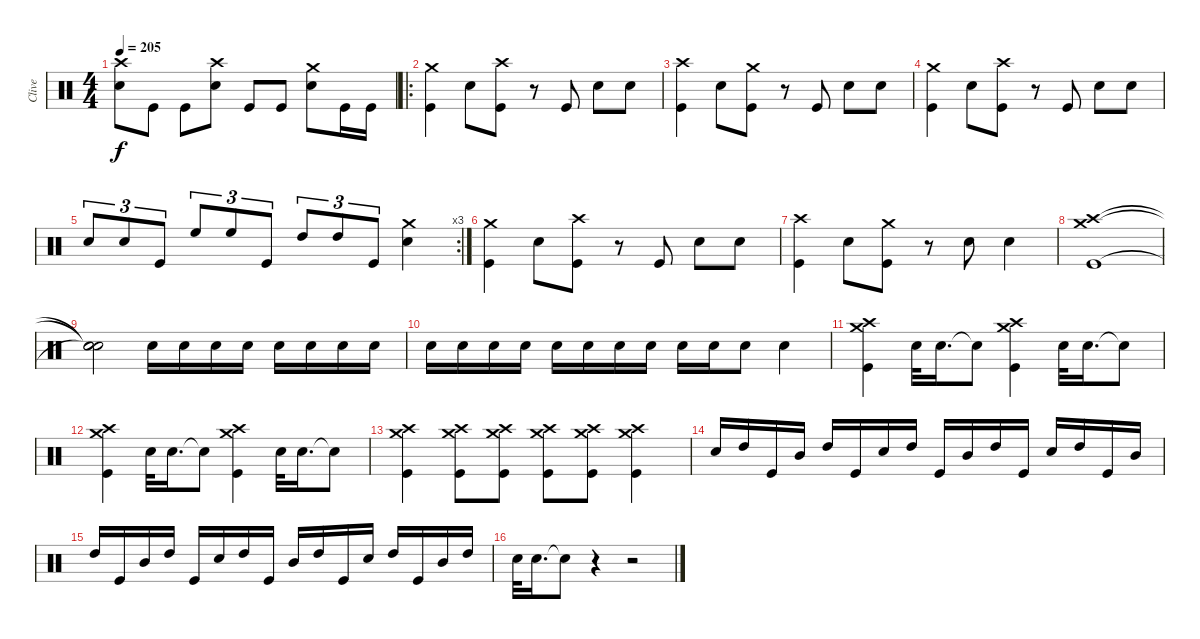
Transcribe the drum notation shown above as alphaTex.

\track ("Clive" "Clive") {instrument percussion}
\staff {score}
\articulation defaults
\ts (4 4)
\tempo 205
\clef neutral
\ks c
("Crash high (hit)" "Snare (hit) 2").8{dy f} "Kick (hit)".8 "Kick (hit)".8 ("Crash high (hit)" "Snare (hit) 2").8 "Kick (hit)".8 "Kick (hit)".8 ("Crash medium (hit)" "Snare (hit) 2").8 "Kick (hit)".16 "Kick (hit)".16 |
\ro
("Crash medium (hit)" "Kick (hit)").4 "Snare (hit) 2".8 ("Crash high (hit)" "Kick (hit)").8 r.8 "Kick (hit)".8 "Snare (hit) 2".8 "Snare (hit) 2".8 |
("Crash high (hit)" "Kick (hit)").4 "Snare (hit) 2".8 ("Crash medium (hit)" "Kick (hit)").8 r.8 "Kick (hit)".8 "Snare (hit) 2".8 "Snare (hit) 2".8 |
("Crash medium (hit)" "Kick (hit)").4 "Snare (hit) 2".8 ("Crash high (hit)" "Kick (hit)").8 r.8 "Kick (hit)".8 "Snare (hit) 2".8 "Snare (hit) 2".8 |
\rc 3 "Snare (hit) 2".8{tu (3 2)} "Snare (hit) 2".8{tu (3 2)} "Kick (hit)".8{tu (3 2)} "High Floor Tom (hit)".8{tu (3 2)} "High Floor Tom (hit)".8{tu (3 2)} "Kick (hit)".8{tu (3 2)} "High Tom (hit)".8{tu (3 2)} "High Tom (hit)".8{tu (3 2)} "Kick (hit)".8{tu (3 2)}
("Crash medium (hit)" "Snare (hit) 2").4 |
("Crash medium (hit)" "Kick (hit)").4 "Snare (hit) 2".8 ("Crash high (hit)" "Kick (hit)").8 r.8 "Kick (hit)".8 "Snare (hit) 2".8 "Snare (hit) 2".8 |
("Crash high (hit)" "Kick (hit)").4 "Snare (hit) 2".8 ("Crash medium (hit)" "Kick (hit)").8 r.8 "Snare (hit) 2".8 "Snare (hit) 2".4 |
("Crash medium (hit)" "Crash high (hit)" "Kick (hit)").1 |
("Snare (hit)"{t} "Snare (hit)"{t} "Snare (hit)"{t}).2 "Snare (hit) 2".16 "Snare (hit) 2".16 "Snare (hit) 2".16 "Snare (hit) 2".16 "Snare (hit) 2".16 "Snare (hit) 2".16 "Snare (hit) 2".16 "Snare (hit) 2".16 |
"Snare (hit) 2".16 "Snare (hit) 2".16 "Snare (hit) 2".16 "Snare (hit) 2".16 "Snare (hit) 2".16 "Snare (hit) 2".16 "Snare (hit) 2".16 "Snare (hit) 2".16 "Snare (hit) 2".16 "Snare (hit) 2".16 "Snare (hit) 2".8 "Snare (hit) 2".4 |
("Crash medium (hit)" "Crash high (hit)" "Kick (hit)").4 "Snare (hit) 2".32 "Snare (hit) 2".16{d} "Snare (hit)"{t}.8 ("Crash medium (hit)" "Crash high (hit)" "Kick (hit)").4 "Snare (hit) 2".32 "Snare (hit) 2".16{d} "Snare (hit)"{t}.8 |
("Crash medium (hit)" "Crash high (hit)" "Kick (hit)").4 "Snare (hit) 2".32 "Snare (hit) 2".16{d} "Snare (hit)"{t}.8 ("Crash medium (hit)" "Crash high (hit)" "Kick (hit)").4 "Snare (hit) 2".32 "Snare (hit) 2".16{d} "Snare (hit)"{t}.8 |
("Crash high (hit)" "Crash medium (hit)" "Kick (hit)").4 ("Crash high (hit)" "Crash medium (hit)" "Kick (hit)").8 ("Crash medium (hit)" "Crash high (hit)" "Kick (hit)").8 ("Crash medium (hit)" "Crash high (hit)" "Kick (hit)").8 ("Crash high (hit)" "Crash medium (hit)" "Kick (hit)").8 ("Crash medium (hit)" "Crash high (hit)" "Kick (hit)").4 |
"Snare (hit) 2".16 "High Tom (hit)".16 "Kick (hit)".16 "Mid Tom (hit)".16 "High Tom (hit)".16 "Kick (hit)".16 "Snare (hit) 2".16 "High Tom (hit)".16 "Kick (hit)".16 "Mid Tom (hit)".16 "High Tom (hit)".16 "Kick (hit)".16 "Snare (hit) 2".16 "High Tom (hit)".16 "Kick (hit)".16 "Mid Tom (hit)".16 |
"High Tom (hit)".16 "Kick (hit)".16 "Mid Tom (hit)".16 "High Tom (hit)".16 "Kick (hit)".16 "Snare (hit) 2".16 "High Tom (hit)".16 "Kick (hit)".16 "Mid Tom (hit)".16 "High Tom (hit)".16 "Kick (hit)".16 "Snare (hit) 2".16 "High Tom (hit)".16 "Kick (hit)".16 "Mid Tom (hit)".16 "High Tom (hit)".16 |
"Snare (hit) 2".32 "Snare (hit) 2".16{d} "Snare (hit)"{t}.8 r.4 r.2
